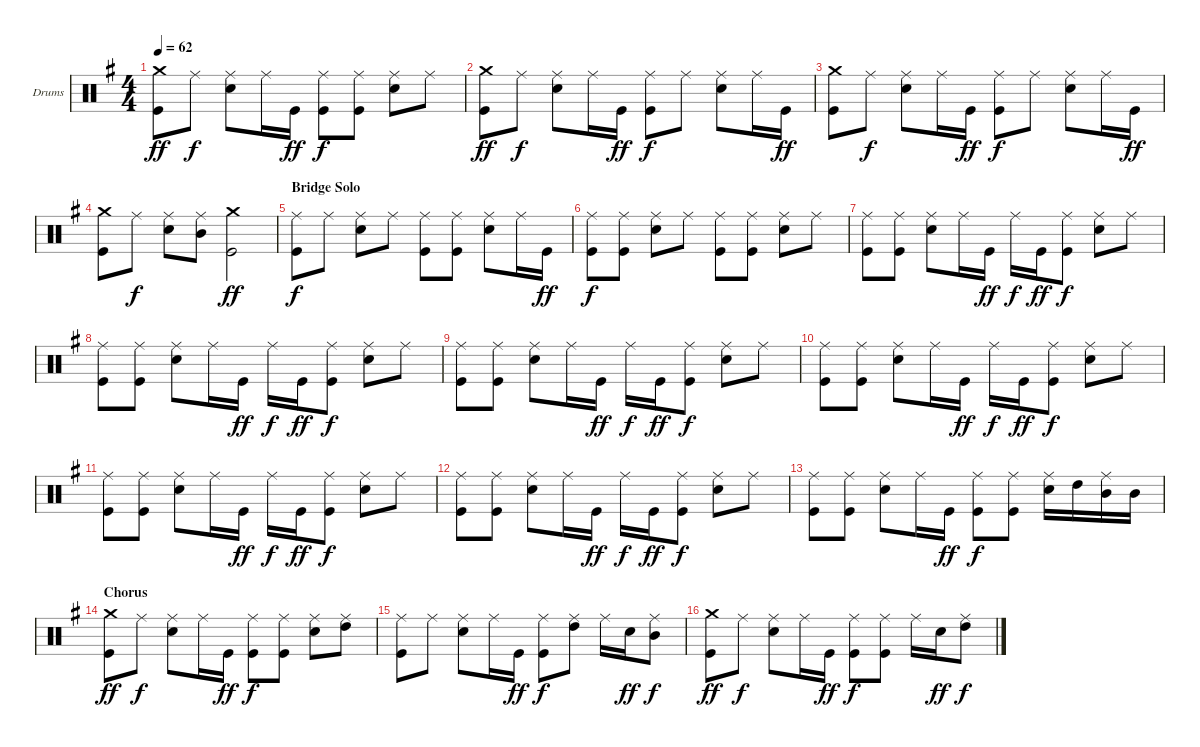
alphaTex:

\defaultSystemsLayout 4
\bracketExtendMode groupsimilarinstruments
\firstSystemTrackNameOrientation horizontal
\otherSystemsTrackNameOrientation horizontal
\track ("Drumkit" "Drums") {instrument percussion}
\staff {score}
\articulation defaults
\ts (4 4)
\tempo 62
\clef neutral
\scale
0.333333
\ks g
("Crash medium (hit)" "Kick (hit)").8{dy ff} "Ride (middle)".8{dy f} ("Ride (middle)" "Snare (hit) 2").8 "Ride (middle)".16 "Kick (hit)".16{dy ff} ("Ride (middle)" "Kick (hit)").8{dy f} ("Ride (middle)" "Kick (hit)").8 ("Ride (middle)" "Snare (hit) 2").8 "Ride (middle)".8 |
\scale
0.333333 ("Crash medium (hit)" "Kick (hit)").8{dy ff} "Ride (middle)".8{dy f} ("Ride (middle)" "Snare (hit) 2").8 "Ride (middle)".16 "Kick (hit)".16{dy ff} ("Ride (middle)" "Kick (hit)").8{dy f} "Ride (middle)".8 ("Ride (middle)" "Snare (hit) 2").8 "Ride (middle)".16 "Kick (hit)".16{dy ff} |
\scale
0.333333 ("Crash medium (hit)" "Kick (hit)").8 "Ride (middle)".8{dy f} ("Ride (middle)" "Snare (hit) 2").8 "Ride (middle)".16 "Kick (hit)".16{dy ff} ("Ride (middle)" "Kick (hit)").8{dy f} "Ride (middle)".8 ("Ride (middle)" "Snare (hit) 2").8 "Ride (middle)".16 "Kick (hit)".16{dy ff} |
\scale
0.333333 ("Crash medium (hit)" "Kick (hit)").8 "Ride (middle)".8{dy f} ("Ride (middle)" "Snare (hit) 2").8 ("Ride (middle)" "Mid Tom (hit)").8 ("Crash medium (hit)" "Kick (hit)").2{dy ff} |
\section ("" "Bridge Solo")
\scale
0.333333 ("Ride (middle)" "Kick (hit)").8{dy f} "Ride (middle)".8 ("Ride (middle)" "Snare (hit) 2").8 "Ride (middle)".8 ("Ride (middle)" "Kick (hit)").8 ("Ride (middle)" "Kick (hit)").8 ("Ride (middle)" "Snare (hit) 2").8 "Ride (middle)".16 "Kick (hit)".16{dy ff} |
\scale
0.333333 ("Ride (middle)" "Kick (hit)").8{dy f} ("Ride (middle)" "Kick (hit)").8 ("Ride (middle)" "Snare (hit) 2").8 "Ride (middle)".8 ("Ride (middle)" "Kick (hit)").8 ("Ride (middle)" "Kick (hit)").8 ("Ride (middle)" "Snare (hit) 2").8 "Ride (middle)".8 |
\scale
0.333333 ("Ride (middle)" "Kick (hit)").8 ("Ride (middle)" "Kick (hit)").8 ("Ride (middle)" "Snare (hit) 2").8 "Ride (middle)".16 "Kick (hit)".16{dy ff} "Ride (middle)".16{dy f} "Kick (hit)".16{dy ff} ("Ride (middle)" "Kick (hit)").8{dy f} ("Ride (middle)" "Snare (hit) 2").8 "Ride (middle)".8 |
\scale
0.333333 ("Ride (middle)" "Kick (hit)").8 ("Ride (middle)" "Kick (hit)").8 ("Ride (middle)" "Snare (hit) 2").8 "Ride (middle)".16 "Kick (hit)".16{dy ff} "Ride (middle)".16{dy f} "Kick (hit)".16{dy ff} ("Ride (middle)" "Kick (hit)").8{dy f} ("Ride (middle)" "Snare (hit) 2").8 "Ride (middle)".8 |
\scale
0.333333 ("Ride (middle)" "Kick (hit)").8 ("Ride (middle)" "Kick (hit)").8 ("Ride (middle)" "Snare (hit) 2").8 "Ride (middle)".16 "Kick (hit)".16{dy ff} "Ride (middle)".16{dy f} "Kick (hit)".16{dy ff} ("Ride (middle)" "Kick (hit)").8{dy f} ("Ride (middle)" "Snare (hit) 2").8 "Ride (middle)".8 |
\scale
0.333333 ("Ride (middle)" "Kick (hit)").8 ("Ride (middle)" "Kick (hit)").8 ("Ride (middle)" "Snare (hit) 2").8 "Ride (middle)".16 "Kick (hit)".16{dy ff} "Ride (middle)".16{dy f} "Kick (hit)".16{dy ff} ("Ride (middle)" "Kick (hit)").8{dy f} ("Ride (middle)" "Snare (hit) 2").8 "Ride (middle)".8 |
\scale
0.333333 ("Ride (middle)" "Kick (hit)").8 ("Ride (middle)" "Kick (hit)").8 ("Ride (middle)" "Snare (hit) 2").8 "Ride (middle)".16 "Kick (hit)".16{dy ff} "Ride (middle)".16{dy f} "Kick (hit)".16{dy ff} ("Ride (middle)" "Kick (hit)").8{dy f} ("Ride (middle)" "Snare (hit) 2").8 "Ride (middle)".8 |
\scale
0.333333 ("Ride (middle)" "Kick (hit)").8 ("Ride (middle)" "Kick (hit)").8 ("Ride (middle)" "Snare (hit) 2").8 "Ride (middle)".16 "Kick (hit)".16{dy ff} "Ride (middle)".16{dy f} "Kick (hit)".16{dy ff} ("Ride (middle)" "Kick (hit)").8{dy f} ("Ride (middle)" "Snare (hit) 2").8 "Ride (middle)".8 |
\scale
0.333333 ("Ride (middle)" "Kick (hit)").8 ("Ride (middle)" "Kick (hit)").8 ("Ride (middle)" "Snare (hit) 2").8 "Ride (middle)".16 "Kick (hit)".16{dy ff} ("Ride (middle)" "Kick (hit)").8{dy f} ("Ride (middle)" "Kick (hit)").8 ("Ride (middle)" "Snare (hit) 2").16 "High Tom (hit)".16 ("Ride (middle)" "Mid Tom (hit)").16 "Mid Tom (hit)".16 |
\section ("" "Chorus")
\scale
0.333333 ("Crash medium (hit)" "Kick (hit)").8{dy ff} "Ride (middle)".8{dy f} ("Ride (middle)" "Snare (hit) 2").8 "Ride (middle)".16 "Kick (hit)".16{dy ff} ("Ride (middle)" "Kick (hit)").8{dy f} ("Ride (middle)" "Kick (hit)").8 ("Ride (middle)" "Snare (hit) 2").8 ("Ride (middle)" "High Tom (hit)").8 |
\scale
0.333333 ("Ride (middle)" "Kick (hit)").8 "Ride (middle)".8 ("Ride (middle)" "Snare (hit) 2").8 "Ride (middle)".16 "Kick (hit)".16{dy ff} ("Ride (middle)" "Kick (hit)").8{dy f} ("Ride (middle)" "High Tom (hit)").8 "Ride (middle)".16 "Snare (hit) 2".16{dy ff} ("Ride (middle)" "Mid Tom (hit)").8{dy f} |
\scale
0.333333 ("Crash medium (hit)" "Kick (hit)").8{dy ff} "Ride (middle)".8{dy f} ("Ride (middle)" "Snare (hit) 2").8 "Ride (middle)".16 "Kick (hit)".16{dy ff} ("Ride (middle)" "Kick (hit)").8{dy f} ("Ride (middle)" "Kick (hit)").8 "Ride (middle)".16 "Snare (hit) 2".16{dy ff} ("Ride (middle)" "High Tom (hit)").8{dy f}
